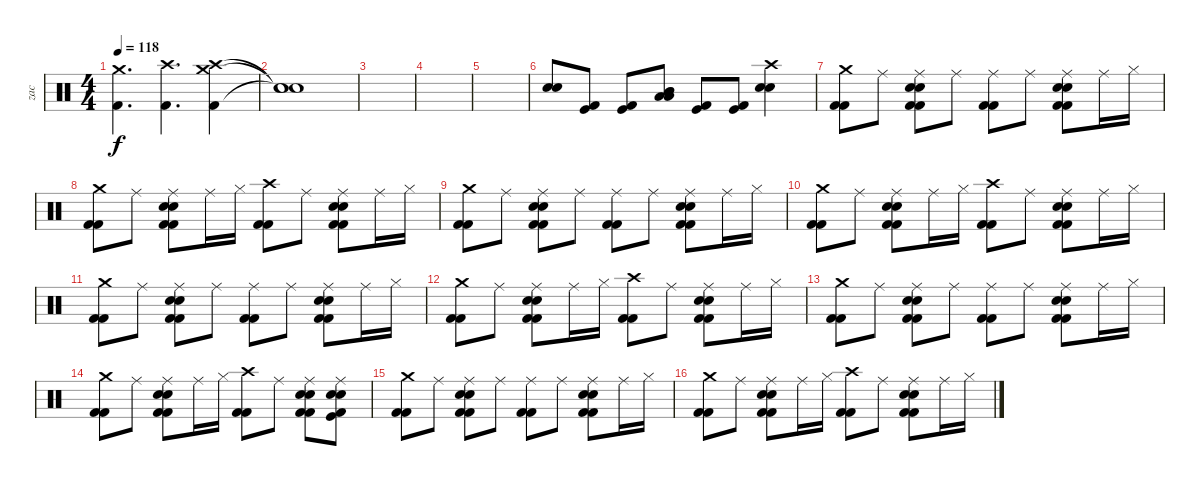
\track ("zac" "zac") {instrument percussion}
\staff {score}
\articulation defaults
\ts (4 4)
\tempo 118
\clef neutral
\ks c
("Crash medium (hit)" "Kick (hit) 2").4{d dy f} ("Crash high (hit)" "Kick (hit) 2").4{d} ("Crash high (hit)" "Crash medium (hit)" "Kick (hit) 2").4 |
("Snare (hit)"{t} "Snare (hit)"{t} "Snare (hit)"{t}).1 |
|
|
|
("Electric Snare (hit)" "Electric Snare (hit)").8 ("Kick (hit)" "Kick (hit) 2").8 ("Kick (hit)" "Kick (hit) 2").8 ("Mid Tom (hit)" "Mid Tom (hit)" "Low Tom (hit)" "Low Tom (hit)").8 ("Kick (hit)" "Kick (hit) 2").8 ("Kick (hit)" "Kick (hit) 2").8 ("Crash high (hit)" "Electric Snare (hit)" "Electric Snare (hit)").4 |
("Crash medium (hit)" "Kick (hit) 2" "Kick (hit) 2").8 "Ride (middle)".8 ("Electric Snare (hit)" "Ride (middle)" "Electric Snare (hit)" "Kick (hit) 2" "Kick (hit) 2").8 "Ride (middle)".8 ("Ride (middle)" "Kick (hit) 2" "Kick (hit) 2").8 "Ride (middle)".8 ("Electric Snare (hit)" "Ride (middle)" "Electric Snare (hit)" "Kick (hit) 2" "Kick (hit) 2").8 "Ride (middle)".16 "Hi-Hat (closed)".16 |
("Crash medium (hit)" "Kick (hit) 2" "Kick (hit) 2").8 "Ride (middle)".8 ("Electric Snare (hit)" "Ride (middle)" "Electric Snare (hit)" "Kick (hit) 2" "Kick (hit) 2").8 "Ride (middle)".16 "Hi-Hat (closed)".16 ("Crash high (hit)" "Kick (hit) 2" "Kick (hit) 2").8 "Ride (middle)".8 ("Electric Snare (hit)" "Ride (middle)" "Electric Snare (hit)" "Kick (hit) 2" "Kick (hit) 2").8 "Ride (middle)".16 "Hi-Hat (closed)".16 |
("Crash medium (hit)" "Kick (hit) 2" "Kick (hit) 2").8 "Ride (middle)".8 ("Electric Snare (hit)" "Ride (middle)" "Electric Snare (hit)" "Kick (hit) 2" "Kick (hit) 2").8 "Ride (middle)".8 ("Ride (middle)" "Kick (hit) 2" "Kick (hit) 2").8 "Ride (middle)".8 ("Electric Snare (hit)" "Ride (middle)" "Electric Snare (hit)" "Kick (hit) 2" "Kick (hit) 2").8 "Ride (middle)".16 "Hi-Hat (closed)".16 |
("Crash medium (hit)" "Kick (hit) 2" "Kick (hit) 2").8 "Ride (middle)".8 ("Electric Snare (hit)" "Ride (middle)" "Electric Snare (hit)" "Kick (hit) 2" "Kick (hit) 2").8 "Ride (middle)".16 "Hi-Hat (closed)".16 ("Crash high (hit)" "Kick (hit) 2" "Kick (hit) 2").8 "Ride (middle)".8 ("Electric Snare (hit)" "Ride (middle)" "Electric Snare (hit)" "Kick (hit) 2" "Kick (hit) 2").8 "Ride (middle)".16 "Hi-Hat (closed)".16 |
("Crash medium (hit)" "Kick (hit) 2" "Kick (hit) 2").8 "Ride (middle)".8 ("Electric Snare (hit)" "Ride (middle)" "Electric Snare (hit)" "Kick (hit) 2" "Kick (hit) 2").8 "Ride (middle)".8 ("Ride (middle)" "Kick (hit) 2" "Kick (hit) 2").8 "Ride (middle)".8 ("Electric Snare (hit)" "Ride (middle)" "Electric Snare (hit)" "Kick (hit) 2" "Kick (hit) 2").8 "Ride (middle)".16 "Hi-Hat (closed)".16 |
("Crash medium (hit)" "Kick (hit) 2" "Kick (hit) 2").8 "Ride (middle)".8 ("Electric Snare (hit)" "Ride (middle)" "Electric Snare (hit)" "Kick (hit) 2" "Kick (hit) 2").8 "Ride (middle)".16 "Hi-Hat (closed)".16 ("Crash high (hit)" "Kick (hit) 2" "Kick (hit) 2").8 "Ride (middle)".8 ("Electric Snare (hit)" "Ride (middle)" "Electric Snare (hit)" "Kick (hit) 2" "Kick (hit) 2").8 "Ride (middle)".16 "Hi-Hat (closed)".16 |
("Crash medium (hit)" "Kick (hit) 2" "Kick (hit) 2").8 "Ride (middle)".8 ("Electric Snare (hit)" "Ride (middle)" "Electric Snare (hit)" "Kick (hit) 2" "Kick (hit) 2").8 "Ride (middle)".8 ("Ride (middle)" "Kick (hit) 2" "Kick (hit) 2").8 "Ride (middle)".8 ("Electric Snare (hit)" "Ride (middle)" "Electric Snare (hit)" "Kick (hit) 2" "Kick (hit) 2").8 "Ride (middle)".16 "Hi-Hat (closed)".16 |
("Crash medium (hit)" "Kick (hit) 2" "Kick (hit) 2").8 "Ride (middle)".8 ("Electric Snare (hit)" "Ride (middle)" "Electric Snare (hit)" "Kick (hit) 2" "Kick (hit) 2").8 "Ride (middle)".16 "Hi-Hat (closed)".16 ("Crash high (hit)" "Kick (hit) 2" "Kick (hit) 2").8 "Ride (middle)".8 ("Electric Snare (hit)" "Ride (middle)" "Electric Snare (hit)" "Kick (hit) 2" "Kick (hit) 2").8 ("Electric Snare (hit)" "Ride (middle)" "Electric Snare (hit)" "Kick (hit)" "Kick (hit) 2").8 |
("Crash medium (hit)" "Kick (hit) 2" "Kick (hit) 2").8 "Ride (middle)".8 ("Electric Snare (hit)" "Ride (middle)" "Electric Snare (hit)" "Kick (hit) 2" "Kick (hit) 2").8 "Ride (middle)".8 ("Ride (middle)" "Kick (hit) 2" "Kick (hit) 2").8 "Ride (middle)".8 ("Electric Snare (hit)" "Ride (middle)" "Electric Snare (hit)" "Kick (hit) 2" "Kick (hit) 2").8 "Ride (middle)".16 "Hi-Hat (closed)".16 |
("Crash medium (hit)" "Kick (hit) 2" "Kick (hit) 2").8 "Ride (middle)".8 ("Electric Snare (hit)" "Ride (middle)" "Electric Snare (hit)" "Kick (hit) 2" "Kick (hit) 2").8 "Ride (middle)".16 "Hi-Hat (closed)".16 ("Crash high (hit)" "Kick (hit) 2" "Kick (hit) 2").8 "Ride (middle)".8 ("Electric Snare (hit)" "Ride (middle)" "Electric Snare (hit)" "Kick (hit) 2" "Kick (hit) 2").8 "Ride (middle)".16 "Hi-Hat (closed)".16
